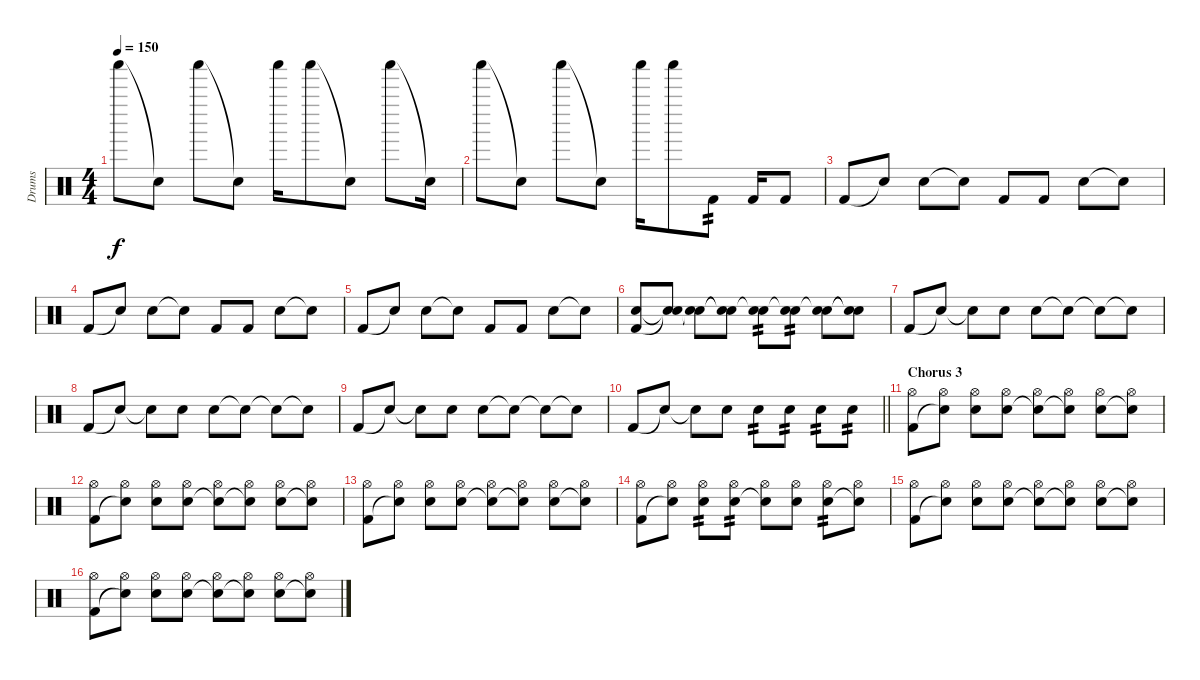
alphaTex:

\track ("Drums" "Drums") {instrument percussion}
\staff {score}
\articulation defaults
\ts (4 4)
\tempo 150
\clef neutral
\ks c "Shaker (hit)".8{dy f} "Snare (hit)"{t}.8 "Shaker (hit)".8 "Snare (hit)"{t}.8 "Shaker (hit)".16 "Shaker (hit)".8 "Snare (hit)"{t}.8 "Shaker (hit)".8 "Snare (hit)"{t}.16
|
"Shaker (hit)".8 "Snare (hit)"{t}.8 "Shaker (hit)".8 "Snare (hit)"{t}.8 "Shaker (hit)".16 "Shaker (hit)".8 "Kick (hit) 2".8{tp 2} "Kick (hit) 2".16 "Kick (hit) 2".8 |
"Kick (hit) 2".8 "Snare (hit)"{t}.8 "Electric Snare (hit)".8 "Snare (hit)"{t}.8 "Kick (hit) 2".8 "Kick (hit) 2".8 "Electric Snare (hit)".8 "Snare (hit)"{t}.8 |
"Kick (hit) 2".8 "Snare (hit)"{t}.8 "Electric Snare (hit)".8 "Snare (hit)"{t}.8 "Kick (hit) 2".8 "Kick (hit) 2".8 "Electric Snare (hit)".8 "Snare (hit)"{t}.8 |
"Kick (hit) 2".8 "Snare (hit)"{t}.8 "Electric Snare (hit)".8 "Snare (hit)"{t}.8 "Kick (hit) 2".8 "Kick (hit) 2".8 "Electric Snare (hit)".8 "Snare (hit)"{t}.8 |
("Electric Snare (hit)" "Kick (hit) 2").8 ("Snare (hit)"{t} "Snare (hit)"{t}).8 ("Snare (hit)"{t} "Snare (hit)"{t}).8 ("Snare (hit)"{t} "Snare (hit)"{t}).8 ("Electric Snare (hit)" "Snare (hit)"{t}).8{tp 2} ("Electric Snare (hit)" "Snare (hit)"{t}).8{tp 2} ("Electric Snare (hit)" "Snare (hit)"{t}).8 ("Electric Snare (hit)"{t} "Snare (hit)"{t}).8 |
"Kick (hit) 2".8 "Snare (hit)"{t}.8 "Snare (hit)"{t}.8 "Electric Snare (hit)".8 "Electric Snare (hit)".8 "Electric Snare (hit)"{t}.8 "Snare (hit)"{t}.8 "Snare (hit)"{t}.8 |
"Kick (hit) 2".8 "Snare (hit)"{t}.8 "Snare (hit)"{t}.8 "Electric Snare (hit)".8 "Electric Snare (hit)".8 "Electric Snare (hit)"{t}.8 "Snare (hit)"{t}.8 "Snare (hit)"{t}.8 |
"Kick (hit) 2".8 "Snare (hit)"{t}.8 "Snare (hit)"{t}.8 "Electric Snare (hit)".8 "Electric Snare (hit)".8 "Electric Snare (hit)"{t}.8 "Snare (hit)"{t}.8 "Snare (hit)"{t}.8 |
\barLineRight lightlight "Kick (hit) 2".8 "Snare (hit)"{t}.8 "Snare (hit)"{t}.8 "Electric Snare (hit)".8 "Electric Snare (hit)".8{tp 2} "Electric Snare (hit)".8{tp 2} "Electric Snare (hit)".8{tp 2} "Electric Snare (hit)".8{tp 2}
|
\section ("" "Chorus 3")
("Hi-Hat (open)" "Kick (hit) 2").8 ("Hi-Hat (open)" "Snare (hit)"{t}).8 ("Hi-Hat (open)" "Electric Snare (hit)").8 ("Hi-Hat (open)" "Electric Snare (hit)").8 ("Hi-Hat (open)" "Snare (hit)"{t}).8 ("Hi-Hat (open)" "Electric Snare (hit)"{t}).8 ("Hi-Hat (open)" "Electric Snare (hit)").8 ("Hi-Hat (open)" "Snare (hit)"{t}).8 |
("Hi-Hat (open)" "Kick (hit) 2").8 ("Hi-Hat (open)" "Snare (hit)"{t}).8 ("Hi-Hat (open)" "Electric Snare (hit)").8 ("Hi-Hat (open)" "Electric Snare (hit)").8 ("Hi-Hat (open)" "Snare (hit)"{t}).8 ("Hi-Hat (open)" "Electric Snare (hit)"{t}).8 ("Hi-Hat (open)" "Electric Snare (hit)").8 ("Hi-Hat (open)" "Snare (hit)"{t}).8 |
("Hi-Hat (open)" "Kick (hit) 2").8 ("Hi-Hat (open)" "Snare (hit)"{t}).8 ("Hi-Hat (open)" "Electric Snare (hit)").8 ("Hi-Hat (open)" "Electric Snare (hit)").8 ("Hi-Hat (open)" "Snare (hit)"{t}).8 ("Hi-Hat (open)" "Electric Snare (hit)"{t}).8 ("Hi-Hat (open)" "Electric Snare (hit)").8 ("Hi-Hat (open)" "Snare (hit)"{t}).8 |
("Hi-Hat (open)" "Kick (hit) 2").8 ("Hi-Hat (open)" "Snare (hit)"{t}).8 ("Hi-Hat (open)" "Electric Snare (hit)").8{tp 2} ("Hi-Hat (open)" "Electric Snare (hit)").8{tp 2} ("Hi-Hat (open)" "Snare (hit)"{t}).8 ("Hi-Hat (open)" "Electric Snare (hit)").8 ("Hi-Hat (open)" "Electric Snare (hit)").8{tp 2} ("Hi-Hat (open)" "Snare (hit)"{t}).8 |
("Hi-Hat (open)" "Kick (hit) 2").8 ("Hi-Hat (open)" "Snare (hit)"{t}).8 ("Hi-Hat (open)" "Electric Snare (hit)").8 ("Hi-Hat (open)" "Electric Snare (hit)").8 ("Hi-Hat (open)" "Snare (hit)"{t}).8 ("Hi-Hat (open)" "Electric Snare (hit)"{t}).8 ("Hi-Hat (open)" "Electric Snare (hit)").8 ("Hi-Hat (open)" "Snare (hit)"{t}).8 |
("Hi-Hat (open)" "Kick (hit) 2").8 ("Hi-Hat (open)" "Snare (hit)"{t}).8 ("Hi-Hat (open)" "Electric Snare (hit)").8 ("Hi-Hat (open)" "Electric Snare (hit)").8 ("Hi-Hat (open)" "Snare (hit)"{t}).8 ("Hi-Hat (open)" "Electric Snare (hit)"{t}).8 ("Hi-Hat (open)" "Electric Snare (hit)").8 ("Hi-Hat (open)" "Snare (hit)"{t}).8
